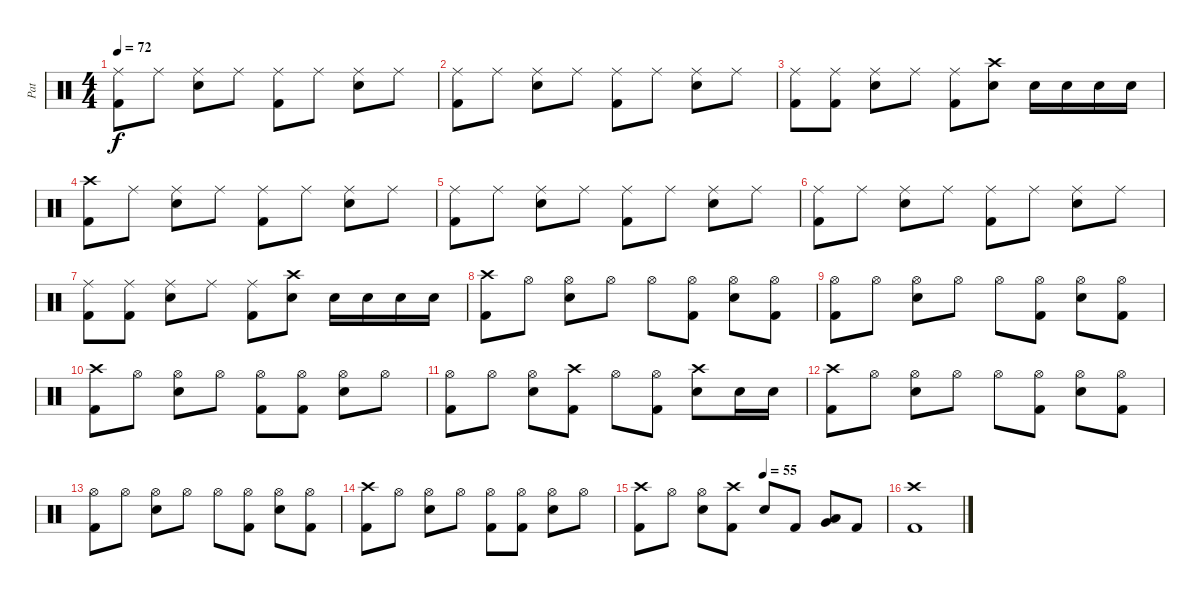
\track ("Pat" "Pat") {instrument percussion}
\staff {score}
\articulation defaults
\ts (4 4)
\tempo 72
\clef neutral
\ks c
("Ride (middle)" "Kick (hit) 2").8{dy f} "Ride (middle)".8 ("Ride (middle)" "Electric Snare (hit)").8 "Ride (middle)".8 ("Ride (middle)" "Kick (hit) 2").8 "Ride (middle)".8 ("Ride (middle)" "Electric Snare (hit)").8 "Ride (middle)".8 |
("Ride (middle)" "Kick (hit) 2").8 "Ride (middle)".8 ("Ride (middle)" "Electric Snare (hit)").8 "Ride (middle)".8 ("Ride (middle)" "Kick (hit) 2").8 "Ride (middle)".8 ("Ride (middle)" "Electric Snare (hit)").8 "Ride (middle)".8 |
("Ride (middle)" "Kick (hit) 2").8 ("Ride (middle)" "Kick (hit) 2").8 ("Ride (middle)" "Electric Snare (hit)").8 "Ride (middle)".8 ("Ride (middle)" "Kick (hit) 2").8 ("Crash high (hit)" "Electric Snare (hit)").8 "Electric Snare (hit)".16 "Electric Snare (hit)".16 "Electric Snare (hit)".16 "Electric Snare (hit)".16 |
("Crash high (hit)" "Kick (hit) 2").8 "Ride (middle)".8 ("Ride (middle)" "Electric Snare (hit)").8 "Ride (middle)".8 ("Ride (middle)" "Kick (hit) 2").8 "Ride (middle)".8 ("Ride (middle)" "Electric Snare (hit)").8 "Ride (middle)".8 |
("Ride (middle)" "Kick (hit) 2").8 "Ride (middle)".8 ("Ride (middle)" "Electric Snare (hit)").8 "Ride (middle)".8 ("Ride (middle)" "Kick (hit) 2").8 "Ride (middle)".8 ("Ride (middle)" "Electric Snare (hit)").8 "Ride (middle)".8 |
("Ride (middle)" "Kick (hit) 2").8 "Ride (middle)".8 ("Ride (middle)" "Electric Snare (hit)").8 "Ride (middle)".8 ("Ride (middle)" "Kick (hit) 2").8 "Ride (middle)".8 ("Ride (middle)" "Electric Snare (hit)").8 "Ride (middle)".8 |
("Ride (middle)" "Kick (hit) 2").8 ("Ride (middle)" "Kick (hit) 2").8 ("Ride (middle)" "Electric Snare (hit)").8 "Ride (middle)".8 ("Ride (middle)" "Kick (hit) 2").8 ("Crash high (hit)" "Electric Snare (hit)").8 "Electric Snare (hit)".16 "Electric Snare (hit)".16 "Electric Snare (hit)".16 "Electric Snare (hit)".16 |
("Crash high (hit)" "Kick (hit) 2").8 "Hi-Hat (open)".8 ("Hi-Hat (open)" "Electric Snare (hit)").8 "Hi-Hat (open)".8 "Hi-Hat (open)".8 ("Hi-Hat (open)" "Kick (hit) 2").8 ("Hi-Hat (open)" "Electric Snare (hit)").8 ("Hi-Hat (open)" "Kick (hit) 2").8 |
("Hi-Hat (open)" "Kick (hit) 2").8 "Hi-Hat (open)".8 ("Hi-Hat (open)" "Electric Snare (hit)").8 "Hi-Hat (open)".8 "Hi-Hat (open)".8 ("Hi-Hat (open)" "Kick (hit) 2").8 ("Hi-Hat (open)" "Electric Snare (hit)").8 ("Hi-Hat (open)" "Kick (hit) 2").8 |
("Crash high (hit)" "Kick (hit) 2").8 "Hi-Hat (open)".8 ("Hi-Hat (open)" "Electric Snare (hit)").8 "Hi-Hat (open)".8 ("Hi-Hat (open)" "Kick (hit) 2").8 ("Hi-Hat (open)" "Kick (hit) 2").8 ("Hi-Hat (open)" "Electric Snare (hit)").8 "Hi-Hat (open)".8 |
("Hi-Hat (open)" "Kick (hit) 2").8 "Hi-Hat (open)".8 ("Hi-Hat (open)" "Electric Snare (hit)").8 ("Crash high (hit)" "Kick (hit) 2").8 "Hi-Hat (open)".8 ("Hi-Hat (open)" "Kick (hit) 2").8 ("Crash high (hit)" "Electric Snare (hit)").8 "Electric Snare (hit)".16 "Electric Snare (hit)".16 |
("Crash high (hit)" "Kick (hit) 2").8 "Hi-Hat (open)".8 ("Hi-Hat (open)" "Electric Snare (hit)").8 "Hi-Hat (open)".8 "Hi-Hat (open)".8 ("Hi-Hat (open)" "Kick (hit) 2").8 ("Hi-Hat (open)" "Electric Snare (hit)").8 ("Hi-Hat (open)" "Kick (hit) 2").8 |
("Hi-Hat (open)" "Kick (hit) 2").8 "Hi-Hat (open)".8 ("Hi-Hat (open)" "Electric Snare (hit)").8 "Hi-Hat (open)".8 "Hi-Hat (open)".8 ("Hi-Hat (open)" "Kick (hit) 2").8 ("Hi-Hat (open)" "Electric Snare (hit)").8 ("Hi-Hat (open)" "Kick (hit) 2").8 |
("Crash high (hit)" "Kick (hit) 2").8 "Hi-Hat (open)".8 ("Hi-Hat (open)" "Electric Snare (hit)").8 "Hi-Hat (open)".8 ("Hi-Hat (open)" "Kick (hit) 2").8 ("Hi-Hat (open)" "Kick (hit) 2").8 ("Hi-Hat (open)" "Electric Snare (hit)").8 "Hi-Hat (open)".8 |
\tempo (55 0.5)
("Crash high (hit)" "Kick (hit) 2").8 "Hi-Hat (open)".8 ("Hi-Hat (open)" "Electric Snare (hit)").8 ("Crash high (hit)" "Kick (hit) 2").8 "Electric Snare (hit)".8 "Kick (hit) 2".8 ("Very Low Tom (hit)" "Low Tom (hit)").8 "Kick (hit) 2".8 |
("Crash high (hit)" "Kick (hit) 2").1
